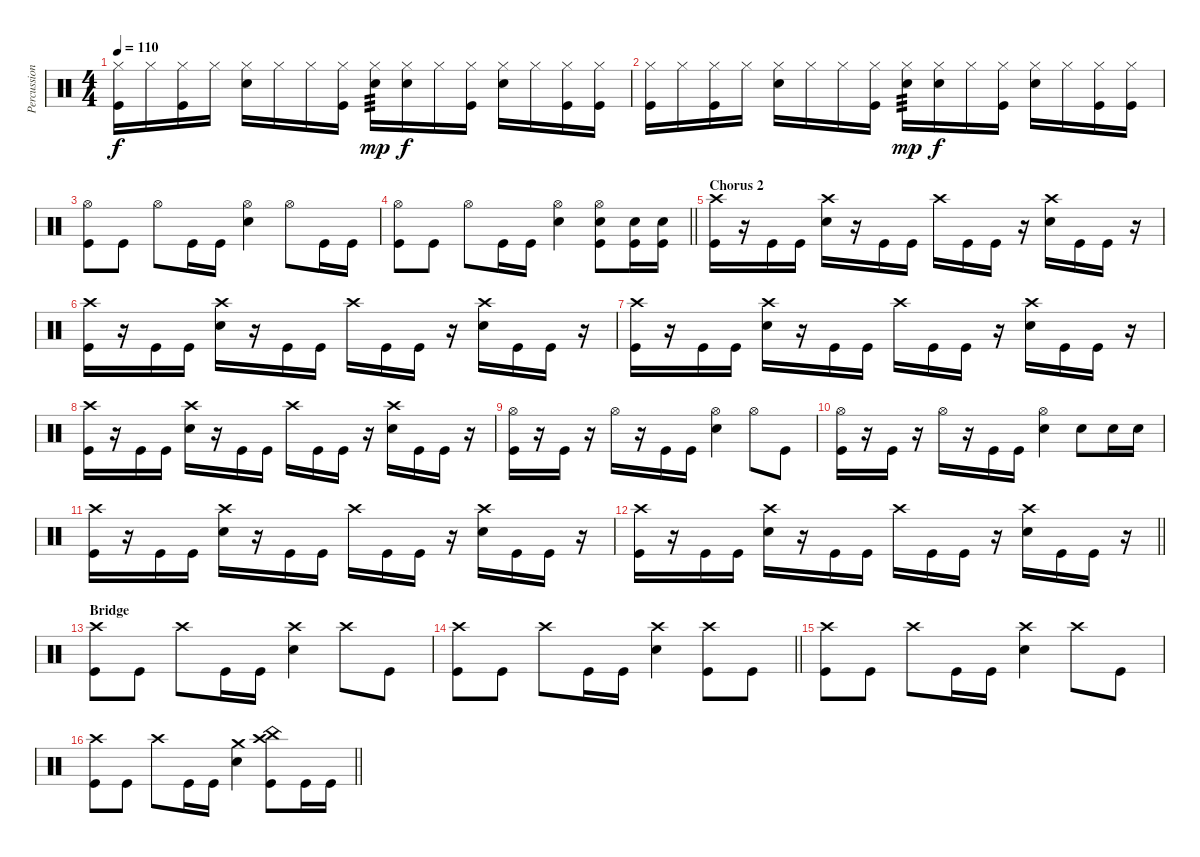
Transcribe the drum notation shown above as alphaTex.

\track ("Percussion" "Percussion") {instrument percussion}
\staff {score}
\articulation defaults
\ts (4 4)
\tempo 110
\clef neutral
\ks c
("Hi-Hat (closed)" "Kick (hit)").16{dy f} "Hi-Hat (closed)".16 ("Hi-Hat (closed)" "Kick (hit)").16 "Hi-Hat (closed)".16 ("Hi-Hat (closed)" "Snare (hit) 2").16 "Hi-Hat (closed)".16 "Hi-Hat (closed)".16 ("Hi-Hat (closed)" "Kick (hit)").16 ("Hi-Hat (closed)" "Snare (hit) 2").16{tp 3 dy mp} ("Hi-Hat (closed)" "Snare (hit) 2").16{dy f} "Hi-Hat (closed)".16 ("Hi-Hat (closed)" "Kick (hit)").16 ("Hi-Hat (closed)" "Snare (hit) 2").16 "Hi-Hat (closed)".16 ("Hi-Hat (closed)" "Kick (hit)").16 ("Hi-Hat (closed)" "Kick (hit)").16 |
("Hi-Hat (closed)" "Kick (hit)").16 "Hi-Hat (closed)".16 ("Hi-Hat (closed)" "Kick (hit)").16 "Hi-Hat (closed)".16 ("Hi-Hat (closed)" "Snare (hit) 2").16 "Hi-Hat (closed)".16 "Hi-Hat (closed)".16 ("Hi-Hat (closed)" "Kick (hit)").16 ("Hi-Hat (closed)" "Snare (hit) 2").16{tp 3 dy mp} ("Hi-Hat (closed)" "Snare (hit) 2").16{dy f} "Hi-Hat (closed)".16 ("Hi-Hat (closed)" "Kick (hit)").16 ("Hi-Hat (closed)" "Snare (hit) 2").16 "Hi-Hat (closed)".16 ("Hi-Hat (closed)" "Kick (hit)").16 ("Hi-Hat (closed)" "Kick (hit)").16 |
("Hi-Hat (open)" "Kick (hit)").8 "Kick (hit)".8 "Hi-Hat (open)".8 "Kick (hit)".16 "Kick (hit)".16 ("Hi-Hat (open)" "Snare (hit) 2").4 "Hi-Hat (open)".8 "Kick (hit)".16 "Kick (hit)".16 |
\barLineRight lightlight
("Hi-Hat (open)" "Kick (hit)").8 "Kick (hit)".8 "Hi-Hat (open)".8 "Kick (hit)".16 "Kick (hit)".16 ("Hi-Hat (open)" "Snare (hit) 2").4 ("Hi-Hat (open)" "Snare (hit) 2" "Kick (hit)").8 ("Snare (hit) 2" "Kick (hit)").16 ("Snare (hit) 2" "Kick (hit)").16 |
\section ("" "Chorus 2")
("Crash high (hit)" "Kick (hit)").16 r.16 "Kick (hit)".16 "Kick (hit)".16 ("Crash high (hit)" "Snare (hit) 2").16 r.16 "Kick (hit)".16 "Kick (hit)".16 "Crash high (hit)".16 "Kick (hit)".16 "Kick (hit)".16 r.16 ("Crash high (hit)" "Snare (hit) 2").16 "Kick (hit)".16 "Kick (hit)".16 r.16 |
("Crash high (hit)" "Kick (hit)").16 r.16 "Kick (hit)".16 "Kick (hit)".16 ("Crash high (hit)" "Snare (hit) 2").16 r.16 "Kick (hit)".16 "Kick (hit)".16 "Crash high (hit)".16 "Kick (hit)".16 "Kick (hit)".16 r.16 ("Crash high (hit)" "Snare (hit) 2").16 "Kick (hit)".16 "Kick (hit)".16 r.16 |
("Crash high (hit)" "Kick (hit)").16 r.16 "Kick (hit)".16 "Kick (hit)".16 ("Crash high (hit)" "Snare (hit) 2").16 r.16 "Kick (hit)".16 "Kick (hit)".16 "Crash high (hit)".16 "Kick (hit)".16 "Kick (hit)".16 r.16 ("Crash high (hit)" "Snare (hit) 2").16 "Kick (hit)".16 "Kick (hit)".16 r.16 |
("Crash high (hit)" "Kick (hit)").16 r.16 "Kick (hit)".16 "Kick (hit)".16 ("Crash high (hit)" "Snare (hit) 2").16 r.16 "Kick (hit)".16 "Kick (hit)".16 "Crash high (hit)".16 "Kick (hit)".16 "Kick (hit)".16 r.16 ("Crash high (hit)" "Snare (hit) 2").16 "Kick (hit)".16 "Kick (hit)".16 r.16 |
("Hi-Hat (open)" "Kick (hit)").16 r.16 "Kick (hit)".16 r.16 "Hi-Hat (open)".16 r.16 "Kick (hit)".16 "Kick (hit)".16 ("Hi-Hat (open)" "Snare (hit) 2").4 "Hi-Hat (open)".8 "Kick (hit)".8 |
("Hi-Hat (open)" "Kick (hit)").16 r.16 "Kick (hit)".16 r.16 "Hi-Hat (open)".16 r.16 "Kick (hit)".16 "Kick (hit)".16 ("Hi-Hat (open)" "Snare (hit) 2").4 "Snare (hit) 2".8 "Snare (hit) 2".16 "Snare (hit) 2".16 |
("Crash high (hit)" "Kick (hit)").16 r.16 "Kick (hit)".16 "Kick (hit)".16 ("Crash high (hit)" "Snare (hit) 2").16 r.16 "Kick (hit)".16 "Kick (hit)".16 "Crash high (hit)".16 "Kick (hit)".16 "Kick (hit)".16 r.16 ("Crash high (hit)" "Snare (hit) 2").16 "Kick (hit)".16 "Kick (hit)".16 r.16 |
\barLineRight lightlight
("Crash high (hit)" "Kick (hit)").16 r.16 "Kick (hit)".16 "Kick (hit)".16 ("Crash high (hit)" "Snare (hit) 2").16 r.16 "Kick (hit)".16 "Kick (hit)".16 "Crash high (hit)".16 "Kick (hit)".16 "Kick (hit)".16 r.16 ("Crash high (hit)" "Snare (hit) 2").16 "Kick (hit)".16 "Kick (hit)".16 r.16 |
\section ("" "Bridge")
("Crash high (hit)" "Kick (hit)").8 "Kick (hit)".8 "Crash high (hit)".8 "Kick (hit)".16 "Kick (hit)".16 ("Crash high (hit)" "Snare (hit) 2").4 "Crash high (hit)".8 "Kick (hit)".8 |
\barLineRight lightlight
("Crash high (hit)" "Kick (hit)").8 "Kick (hit)".8 "Crash high (hit)".8 "Kick (hit)".16 "Kick (hit)".16 ("Crash high (hit)" "Snare (hit) 2").4 ("Crash high (hit)" "Kick (hit)").8 "Kick (hit)".8 |
("Crash high (hit)" "Kick (hit)").8 "Kick (hit)".8 "Crash high (hit)".8 "Kick (hit)".16 "Kick (hit)".16 ("Crash high (hit)" "Snare (hit) 2").4 "Crash high (hit)".8 "Kick (hit)".8 |
\barLineRight lightlight
("Crash high (hit)" "Kick (hit)").8 "Kick (hit)".8 "Crash high (hit)".8 "Kick (hit)".16 "Kick (hit)".16 ("Crash medium (hit)" "Snare (hit) 2").4 ("Crash high (hit)" "China (hit)" "Kick (hit)").8 "Kick (hit)".16 "Kick (hit)".16
